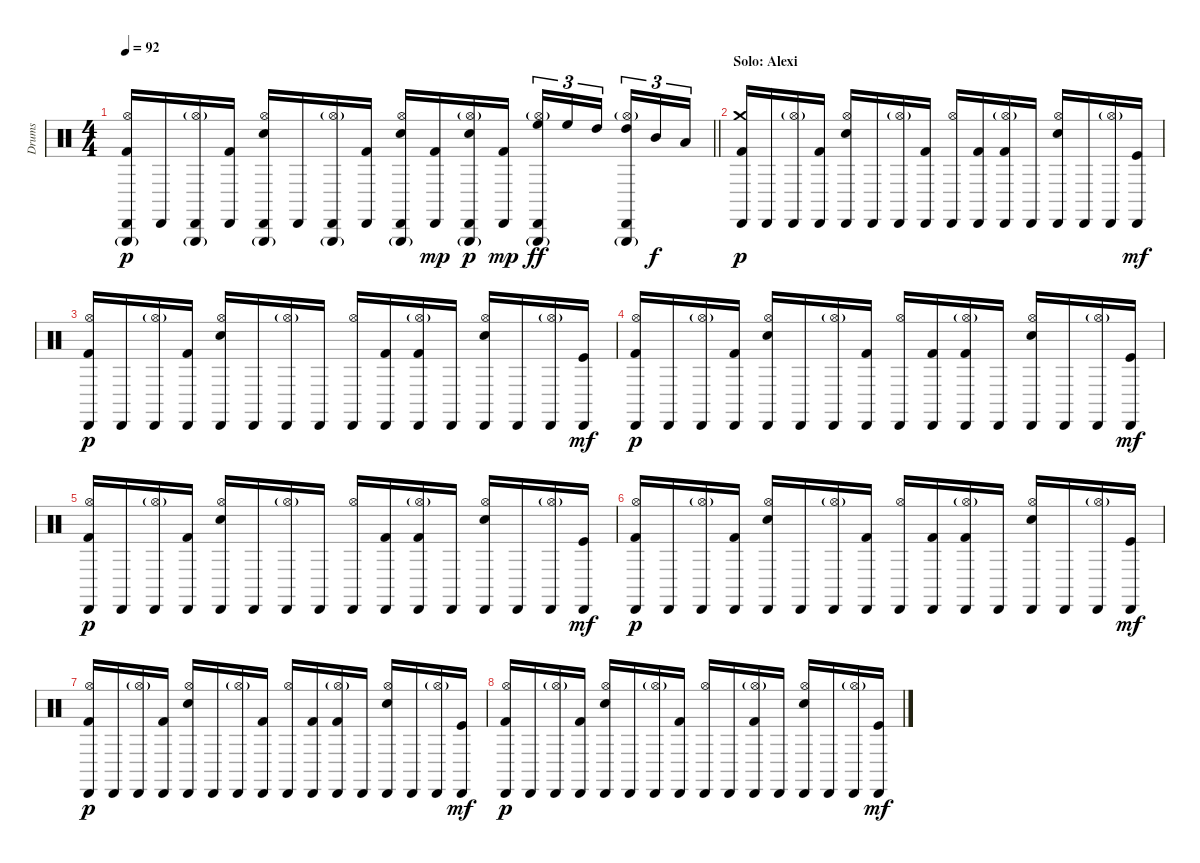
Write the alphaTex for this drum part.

\track ("Drums" "Drums") {instrument percussion}
\staff {score}
\articulation defaults
\ts (4 4)
\tempo 92
\clef neutral
\barLineRight lightlight
\ks c
("Triangle (hit)"{g} "Hi-Hat (open)" "Cabasa (hit)" "Kick (hit) 2").16{dy p} "Cabasa (hit)".16 ("Triangle (hit)"{g} "Hi-Hat (open)"{g} "Cabasa (hit)").16 ("Cabasa (hit)" "Kick (hit) 2").16 ("Triangle (hit)"{g} "Hi-Hat (open)" "Cabasa (hit)" "Electric Snare (hit)").16 "Cabasa (hit)".16 ("Triangle (hit)"{g} "Hi-Hat (open)"{g} "Cabasa (hit)").16 ("Cabasa (hit)" "Kick (hit) 2").16 ("Triangle (hit)"{g} "Hi-Hat (open)" "Cabasa (hit)" "Electric Snare (hit)").16 ("Cabasa (hit)" "Kick (hit) 2").16{dy mp} ("Triangle (hit)"{g} "Hi-Hat (open)"{g} "Cabasa (hit)" "Electric Snare (hit)").16{dy p} ("Cabasa (hit)" "Kick (hit) 2").16{dy mp} ("Triangle (hit)"{g} "Hi-Hat (open)"{g} "Cabasa (hit)" "High Floor Tom (hit)").16{tu (3 2) dy ff} "High Floor Tom (hit)".16{tu (3 2)} "High Tom (hit)".16{tu (3 2)} ("Triangle (hit)"{g} "Hi-Hat (open)"{g} "Cabasa (hit)" "High Tom (hit)").16{tu (3 2)} "Mid Tom (hit)".16{tu (3 2) dy f} "Low Tom (hit)".16{tu (3 2)} |
\section ("" "Solo: Alexi")
("Crash medium (hit)" "Cabasa (hit)" "Kick (hit) 2").16{dy p} "Cabasa (hit)".16 ("Hi-Hat (open)"{g} "Cabasa (hit)").16 ("Cabasa (hit)" "Kick (hit) 2").16 ("Hi-Hat (open)" "Cabasa (hit)" "Electric Snare (hit)").16 "Cabasa (hit)".16 ("Hi-Hat (open)"{g} "Cabasa (hit)").16 ("Cabasa (hit)" "Kick (hit) 2").16 ("Hi-Hat (open)" "Cabasa (hit)").16 ("Cabasa (hit)" "Kick (hit) 2").16 ("Hi-Hat (open)"{g} "Cabasa (hit)" "Kick (hit) 2").16 "Cabasa (hit)".16 ("Hi-Hat (open)" "Cabasa (hit)" "Electric Snare (hit)").16 "Cabasa (hit)".16 ("Hi-Hat (open)"{g} "Cabasa (hit)").16 ("Cabasa (hit)" "Kick (hit)").16{dy mf} |
("Hi-Hat (open)" "Cabasa (hit)" "Kick (hit) 2").16{dy p} "Cabasa (hit)".16 ("Hi-Hat (open)"{g} "Cabasa (hit)").16 ("Cabasa (hit)" "Kick (hit) 2").16 ("Hi-Hat (open)" "Cabasa (hit)" "Electric Snare (hit)").16 "Cabasa (hit)".16 ("Hi-Hat (open)"{g} "Cabasa (hit)").16 "Cabasa (hit)".16 ("Hi-Hat (open)" "Cabasa (hit)").16 ("Cabasa (hit)" "Kick (hit) 2").16 ("Hi-Hat (open)"{g} "Cabasa (hit)" "Kick (hit) 2").16 "Cabasa (hit)".16 ("Hi-Hat (open)" "Cabasa (hit)" "Electric Snare (hit)").16 "Cabasa (hit)".16 ("Hi-Hat (open)"{g} "Cabasa (hit)").16 ("Cabasa (hit)" "Kick (hit)").16{dy mf} |
("Hi-Hat (open)" "Cabasa (hit)" "Kick (hit) 2").16{dy p} "Cabasa (hit)".16 ("Hi-Hat (open)"{g} "Cabasa (hit)").16 ("Cabasa (hit)" "Kick (hit) 2").16 ("Hi-Hat (open)" "Cabasa (hit)" "Electric Snare (hit)").16 "Cabasa (hit)".16 ("Hi-Hat (open)"{g} "Cabasa (hit)").16 ("Cabasa (hit)" "Kick (hit) 2").16 ("Hi-Hat (open)" "Cabasa (hit)").16 ("Cabasa (hit)" "Kick (hit) 2").16 ("Hi-Hat (open)"{g} "Cabasa (hit)" "Kick (hit) 2").16 "Cabasa (hit)".16 ("Hi-Hat (open)" "Cabasa (hit)" "Electric Snare (hit)").16 "Cabasa (hit)".16 ("Hi-Hat (open)"{g} "Cabasa (hit)").16 ("Cabasa (hit)" "Kick (hit)").16{dy mf} |
("Hi-Hat (open)" "Cabasa (hit)" "Kick (hit) 2").16{dy p} "Cabasa (hit)".16 ("Hi-Hat (open)"{g} "Cabasa (hit)").16 ("Cabasa (hit)" "Kick (hit) 2").16 ("Hi-Hat (open)" "Cabasa (hit)" "Electric Snare (hit)").16 "Cabasa (hit)".16 ("Hi-Hat (open)"{g} "Cabasa (hit)").16 "Cabasa (hit)".16 ("Hi-Hat (open)" "Cabasa (hit)").16 ("Cabasa (hit)" "Kick (hit) 2").16 ("Hi-Hat (open)"{g} "Cabasa (hit)" "Kick (hit) 2").16 "Cabasa (hit)".16 ("Hi-Hat (open)" "Cabasa (hit)" "Electric Snare (hit)").16 "Cabasa (hit)".16 ("Hi-Hat (open)"{g} "Cabasa (hit)").16 ("Cabasa (hit)" "Kick (hit)").16{dy mf} |
("Hi-Hat (open)" "Cabasa (hit)" "Kick (hit) 2").16{dy p} "Cabasa (hit)".16 ("Hi-Hat (open)"{g} "Cabasa (hit)").16 ("Cabasa (hit)" "Kick (hit) 2").16 ("Hi-Hat (open)" "Cabasa (hit)" "Electric Snare (hit)").16 "Cabasa (hit)".16 ("Hi-Hat (open)"{g} "Cabasa (hit)").16 ("Cabasa (hit)" "Kick (hit) 2").16 ("Hi-Hat (open)" "Cabasa (hit)").16 ("Cabasa (hit)" "Kick (hit) 2").16 ("Hi-Hat (open)"{g} "Cabasa (hit)" "Kick (hit) 2").16 "Cabasa (hit)".16 ("Hi-Hat (open)" "Cabasa (hit)" "Electric Snare (hit)").16 "Cabasa (hit)".16 ("Hi-Hat (open)"{g} "Cabasa (hit)").16 ("Cabasa (hit)" "Kick (hit)").16{dy mf} |
("Hi-Hat (open)" "Cabasa (hit)" "Kick (hit) 2").16{dy p} "Cabasa (hit)".16 ("Hi-Hat (open)"{g} "Cabasa (hit)").16 ("Cabasa (hit)" "Kick (hit) 2").16 ("Hi-Hat (open)" "Cabasa (hit)" "Electric Snare (hit)").16 "Cabasa (hit)".16 ("Hi-Hat (open)"{g} "Cabasa (hit)").16 ("Cabasa (hit)" "Kick (hit) 2").16 ("Hi-Hat (open)" "Cabasa (hit)").16 ("Cabasa (hit)" "Kick (hit) 2").16 ("Hi-Hat (open)"{g} "Cabasa (hit)" "Kick (hit) 2").16 "Cabasa (hit)".16 ("Hi-Hat (open)" "Cabasa (hit)" "Electric Snare (hit)").16 "Cabasa (hit)".16 ("Hi-Hat (open)"{g} "Cabasa (hit)").16 ("Cabasa (hit)" "Kick (hit)").16{dy mf} |
("Hi-Hat (open)" "Cabasa (hit)" "Kick (hit) 2").16{dy p} "Cabasa (hit)".16 ("Hi-Hat (open)"{g} "Cabasa (hit)").16 ("Cabasa (hit)" "Kick (hit) 2").16 ("Hi-Hat (open)" "Cabasa (hit)" "Electric Snare (hit)").16 "Cabasa (hit)".16 ("Hi-Hat (open)"{g} "Cabasa (hit)").16 ("Cabasa (hit)" "Kick (hit) 2").16 ("Hi-Hat (open)" "Cabasa (hit)").16 "Cabasa (hit)".16 ("Hi-Hat (open)"{g} "Cabasa (hit)" "Kick (hit) 2").16 "Cabasa (hit)".16 ("Hi-Hat (open)" "Cabasa (hit)" "Electric Snare (hit)").16 "Cabasa (hit)".16 ("Hi-Hat (open)"{g} "Cabasa (hit)").16 ("Cabasa (hit)" "Kick (hit)").16{dy mf}
